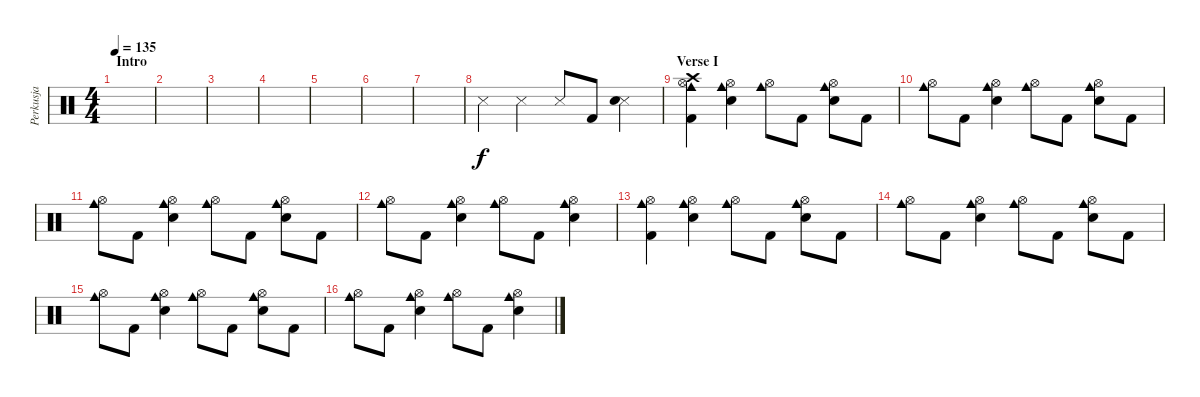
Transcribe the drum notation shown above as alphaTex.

\track ("Perkusja" "Perkusja") {instrument percussion}
\staff {score}
\articulation defaults
\ts (4 4)
\section ("" "Intro")
\tempo 135
\clef neutral
\ks c
|
|
|
|
|
|
|
"Snare (side stick) 3".4 "Snare (side stick) 3".4 "Snare (side stick) 3".8 "Kick (hit) 2".8 ("Snare (side stick) 3" "Electric Snare (hit)").4 |
\section ("" "Verse I")
("Cowbell medium (hit)" "Kick (hit) 2" "Hi-Hat (open)" "Crash high (hit)").4 ("Cowbell medium (hit)" "Electric Snare (hit)" "Hi-Hat (open)").4 ("Cowbell medium (hit)" "Hi-Hat (open)").8 "Kick (hit) 2".8 ("Cowbell medium (hit)" "Electric Snare (hit)" "Hi-Hat (open)").8 "Kick (hit) 2".8 |
("Cowbell medium (hit)" "Hi-Hat (open)").8 "Kick (hit) 2".8 ("Cowbell medium (hit)" "Electric Snare (hit)" "Hi-Hat (open)").4 ("Cowbell medium (hit)" "Hi-Hat (open)").8 "Kick (hit) 2".8 ("Cowbell medium (hit)" "Electric Snare (hit)" "Hi-Hat (open)").8 "Kick (hit) 2".8 |
("Cowbell medium (hit)" "Hi-Hat (open)").8 "Kick (hit) 2".8 ("Cowbell medium (hit)" "Electric Snare (hit)" "Hi-Hat (open)").4 ("Cowbell medium (hit)" "Hi-Hat (open)").8 "Kick (hit) 2".8 ("Cowbell medium (hit)" "Electric Snare (hit)" "Hi-Hat (open)").8 "Kick (hit) 2".8 |
("Cowbell medium (hit)" "Hi-Hat (open)").8 "Kick (hit) 2".8 ("Cowbell medium (hit)" "Electric Snare (hit)" "Hi-Hat (open)").4 ("Cowbell medium (hit)" "Hi-Hat (open)").8 "Kick (hit) 2".8 ("Cowbell medium (hit)" "Electric Snare (hit)" "Hi-Hat (open)").4 |
("Cowbell medium (hit)" "Kick (hit) 2" "Hi-Hat (open)").4 ("Cowbell medium (hit)" "Electric Snare (hit)" "Hi-Hat (open)").4 ("Cowbell medium (hit)" "Hi-Hat (open)").8 "Kick (hit) 2".8 ("Cowbell medium (hit)" "Electric Snare (hit)" "Hi-Hat (open)").8 "Kick (hit) 2".8 |
("Cowbell medium (hit)" "Hi-Hat (open)").8 "Kick (hit) 2".8 ("Cowbell medium (hit)" "Electric Snare (hit)" "Hi-Hat (open)").4 ("Cowbell medium (hit)" "Hi-Hat (open)").8 "Kick (hit) 2".8 ("Cowbell medium (hit)" "Electric Snare (hit)" "Hi-Hat (open)").8 "Kick (hit) 2".8 |
("Cowbell medium (hit)" "Hi-Hat (open)").8 "Kick (hit) 2".8 ("Cowbell medium (hit)" "Electric Snare (hit)" "Hi-Hat (open)").4 ("Cowbell medium (hit)" "Hi-Hat (open)").8 "Kick (hit) 2".8 ("Cowbell medium (hit)" "Electric Snare (hit)" "Hi-Hat (open)").8 "Kick (hit) 2".8 |
("Cowbell medium (hit)" "Hi-Hat (open)").8 "Kick (hit) 2".8 ("Cowbell medium (hit)" "Electric Snare (hit)" "Hi-Hat (open)").4 ("Cowbell medium (hit)" "Hi-Hat (open)").8 "Kick (hit) 2".8 ("Cowbell medium (hit)" "Electric Snare (hit)" "Hi-Hat (open)").4
